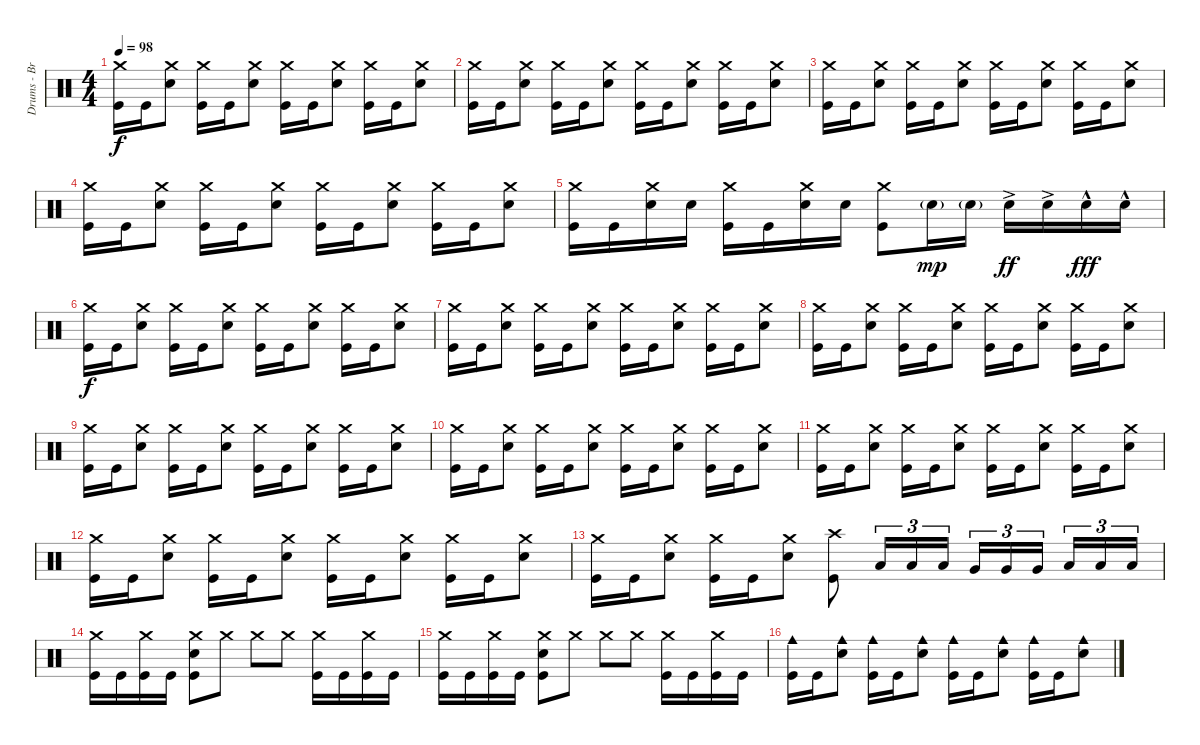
\track ("Drums - Brandon" "Drums - Br") {instrument percussion}
\staff {score}
\articulation defaults
\ts (4 4)
\tempo 98
\clef neutral
\ks c
("Crash medium (hit)" "Kick (hit)").16{dy f} "Kick (hit)".16 ("Crash medium (hit)" "Snare (hit) 2").8 ("Crash medium (hit)" "Kick (hit)").16 "Kick (hit)".16 ("Crash medium (hit)" "Snare (hit) 2").8 ("Crash medium (hit)" "Kick (hit)").16 "Kick (hit)".16 ("Crash medium (hit)" "Snare (hit) 2").8 ("Crash medium (hit)" "Kick (hit)").16 "Kick (hit)".16 ("Crash medium (hit)" "Snare (hit) 2").8 |
("Crash medium (hit)" "Kick (hit)").16 "Kick (hit)".16 ("Crash medium (hit)" "Snare (hit) 2").8 ("Crash medium (hit)" "Kick (hit)").16 "Kick (hit)".16 ("Crash medium (hit)" "Snare (hit) 2").8 ("Crash medium (hit)" "Kick (hit)").16 "Kick (hit)".16 ("Crash medium (hit)" "Snare (hit) 2").8 ("Crash medium (hit)" "Kick (hit)").16 "Kick (hit)".16 ("Crash medium (hit)" "Snare (hit) 2").8 |
("Crash medium (hit)" "Kick (hit)").16 "Kick (hit)".16 ("Crash medium (hit)" "Snare (hit) 2").8 ("Crash medium (hit)" "Kick (hit)").16 "Kick (hit)".16 ("Crash medium (hit)" "Snare (hit) 2").8 ("Crash medium (hit)" "Kick (hit)").16 "Kick (hit)".16 ("Crash medium (hit)" "Snare (hit) 2").8 ("Crash medium (hit)" "Kick (hit)").16 "Kick (hit)".16 ("Crash medium (hit)" "Snare (hit) 2").8 |
("Crash medium (hit)" "Kick (hit)").16 "Kick (hit)".16 ("Crash medium (hit)" "Snare (hit) 2").8 ("Crash medium (hit)" "Kick (hit)").16 "Kick (hit)".16 ("Crash medium (hit)" "Snare (hit) 2").8 ("Crash medium (hit)" "Kick (hit)").16 "Kick (hit)".16 ("Crash medium (hit)" "Snare (hit) 2").8 ("Crash medium (hit)" "Kick (hit)").16 "Kick (hit)".16 ("Crash medium (hit)" "Snare (hit) 2").8 |
("Crash medium (hit)" "Kick (hit)").16 "Kick (hit)".16 ("Crash medium (hit)" "Electric Snare (hit)").16 "Electric Snare (hit)".16 ("Crash medium (hit)" "Kick (hit)").16 "Kick (hit)".16 ("Crash medium (hit)" "Snare (hit) 2").16 "Snare (hit) 2".16 ("Crash medium (hit)" "Kick (hit)").8 "Electric Snare (hit)"{g}.16{dy mp} "Electric Snare (hit)"{g}.16 "Electric Snare (hit)"{ac}.16{dy ff} "Electric Snare (hit)"{ac}.16 "Electric Snare (hit)"{hac}.16{dy fff} "Electric Snare (hit)"{hac}.16 |
("Crash medium (hit)" "Kick (hit)").16{dy f} "Kick (hit)".16 ("Crash medium (hit)" "Snare (hit) 2").8 ("Crash medium (hit)" "Kick (hit)").16 "Kick (hit)".16 ("Crash medium (hit)" "Snare (hit) 2").8 ("Crash medium (hit)" "Kick (hit)").16 "Kick (hit)".16 ("Crash medium (hit)" "Snare (hit) 2").8 ("Crash medium (hit)" "Kick (hit)").16 "Kick (hit)".16 ("Crash medium (hit)" "Snare (hit) 2").8 |
("Crash medium (hit)" "Kick (hit)").16 "Kick (hit)".16 ("Crash medium (hit)" "Snare (hit) 2").8 ("Crash medium (hit)" "Kick (hit)").16 "Kick (hit)".16 ("Crash medium (hit)" "Snare (hit) 2").8 ("Crash medium (hit)" "Kick (hit)").16 "Kick (hit)".16 ("Crash medium (hit)" "Snare (hit) 2").8 ("Crash medium (hit)" "Kick (hit)").16 "Kick (hit)".16 ("Crash medium (hit)" "Snare (hit) 2").8 |
("Crash medium (hit)" "Kick (hit)").16 "Kick (hit)".16 ("Crash medium (hit)" "Snare (hit) 2").8 ("Crash medium (hit)" "Kick (hit)").16 "Kick (hit)".16 ("Crash medium (hit)" "Snare (hit) 2").8 ("Crash medium (hit)" "Kick (hit)").16 "Kick (hit)".16 ("Crash medium (hit)" "Snare (hit) 2").8 ("Crash medium (hit)" "Kick (hit)").16 "Kick (hit)".16 ("Crash medium (hit)" "Snare (hit) 2").8 |
("Crash medium (hit)" "Kick (hit)").16 "Kick (hit)".16 ("Crash medium (hit)" "Snare (hit) 2").8 ("Crash medium (hit)" "Kick (hit)").16 "Kick (hit)".16 ("Crash medium (hit)" "Snare (hit) 2").8 ("Crash medium (hit)" "Kick (hit)").16 "Kick (hit)".16 ("Crash medium (hit)" "Snare (hit) 2").8 ("Crash medium (hit)" "Kick (hit)").16 "Kick (hit)".16 ("Crash medium (hit)" "Snare (hit) 2").8 |
("Crash medium (hit)" "Kick (hit)").16 "Kick (hit)".16 ("Crash medium (hit)" "Snare (hit) 2").8 ("Crash medium (hit)" "Kick (hit)").16 "Kick (hit)".16 ("Crash medium (hit)" "Snare (hit) 2").8 ("Crash medium (hit)" "Kick (hit)").16 "Kick (hit)".16 ("Crash medium (hit)" "Snare (hit) 2").8 ("Crash medium (hit)" "Kick (hit)").16 "Kick (hit)".16 ("Crash medium (hit)" "Snare (hit) 2").8 |
("Crash medium (hit)" "Kick (hit)").16 "Kick (hit)".16 ("Crash medium (hit)" "Snare (hit) 2").8 ("Crash medium (hit)" "Kick (hit)").16 "Kick (hit)".16 ("Crash medium (hit)" "Snare (hit) 2").8 ("Crash medium (hit)" "Kick (hit)").16 "Kick (hit)".16 ("Crash medium (hit)" "Snare (hit) 2").8 ("Crash medium (hit)" "Kick (hit)").16 "Kick (hit)".16 ("Crash medium (hit)" "Snare (hit) 2").8 |
("Crash medium (hit)" "Kick (hit)").16 "Kick (hit)".16 ("Crash medium (hit)" "Snare (hit) 2").8 ("Crash medium (hit)" "Kick (hit)").16 "Kick (hit)".16 ("Crash medium (hit)" "Snare (hit) 2").8 ("Crash medium (hit)" "Kick (hit)").16 "Kick (hit)".16 ("Crash medium (hit)" "Snare (hit) 2").8 ("Crash medium (hit)" "Kick (hit)").16 "Kick (hit)".16 ("Crash medium (hit)" "Snare (hit) 2").8 |
("Crash medium (hit)" "Kick (hit)").16 "Kick (hit)".16 ("Crash medium (hit)" "Snare (hit) 2").8 ("Crash medium (hit)" "Kick (hit)").16 "Kick (hit)".16 ("Crash medium (hit)" "Snare (hit) 2").8 ("Crash high (hit)" "Kick (hit)").8 "Low Tom (hit)".16{tu (3 2)} "Low Tom (hit)".16{tu (3 2)} "Low Tom (hit)".16{tu (3 2)} "Very Low Tom (hit)".16{tu (3 2)} "Very Low Tom (hit)".16{tu (3 2)} "Very Low Tom (hit)".16{tu (3 2) beam splitsecondary} "Low Floor Tom (hit)".16{tu (3 2)} "Low Floor Tom (hit)".16{tu (3 2)} "Low Floor Tom (hit)".16{tu (3 2)} |
("Crash medium (hit)" "Kick (hit)").16 "Kick (hit)".16 ("Crash medium (hit)" "Kick (hit)").16 "Kick (hit)".16 ("Crash medium (hit)" "Snare (hit) 2" "Kick (hit)").8 "Crash medium (hit)".8 "Crash medium (hit)".8 "Crash medium (hit)".8 ("Crash medium (hit)" "Kick (hit)").16 "Kick (hit)".16 ("Crash medium (hit)" "Kick (hit)").16 "Kick (hit)".16 |
("Crash medium (hit)" "Kick (hit)").16 "Kick (hit)".16 ("Crash medium (hit)" "Kick (hit)").16 "Kick (hit)".16 ("Crash medium (hit)" "Electric Snare (hit)" "Kick (hit)").8 "Crash medium (hit)".8 "Crash medium (hit)".8 "Crash medium (hit)".8 ("Crash medium (hit)" "Kick (hit)").16 "Kick (hit)".16 ("Crash medium (hit)" "Kick (hit)").16 "Kick (hit)".16 |
("Cowbell medium (hit)" "Kick (hit)").16 "Kick (hit)".16 ("Cowbell medium (hit)" "Electric Snare (hit)").8 ("Cowbell medium (hit)" "Kick (hit)").16 "Kick (hit)".16 ("Cowbell medium (hit)" "Electric Snare (hit)").8 ("Cowbell medium (hit)" "Kick (hit)").16 "Kick (hit)".16 ("Cowbell medium (hit)" "Electric Snare (hit)").8 ("Cowbell medium (hit)" "Kick (hit)").16 "Kick (hit)".16 ("Cowbell medium (hit)" "Electric Snare (hit)").8
